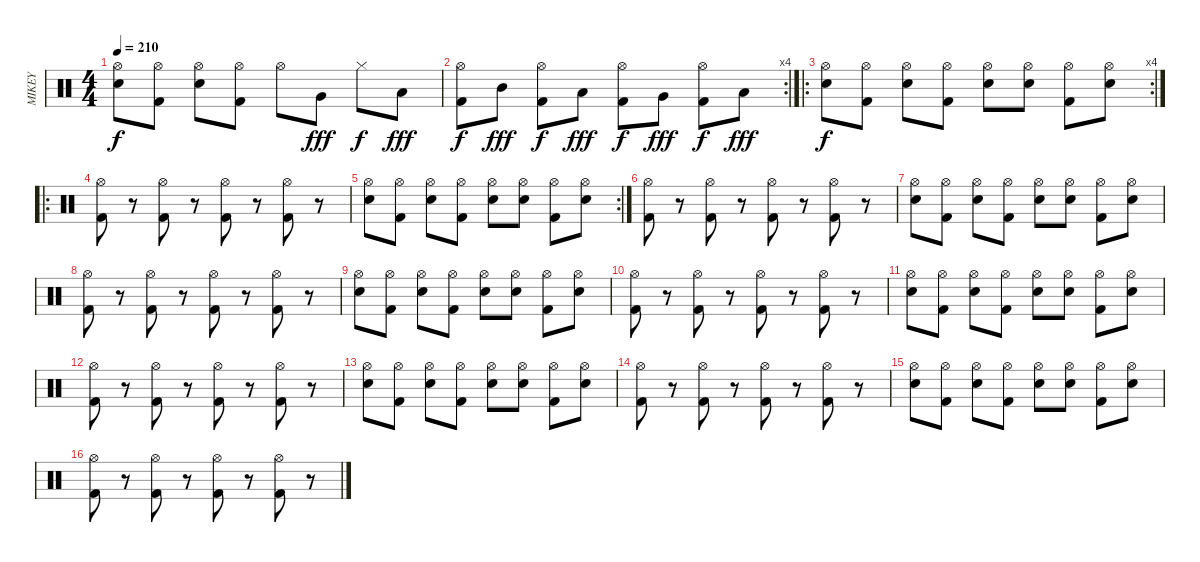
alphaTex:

\track ("MIKEY" "MIKEY") {instrument percussion}
\staff {score}
\articulation defaults
\ts (4 4)
\tempo 210
\clef neutral
\ks c
("Snare (hit) 2" "Hi-Hat (open)").8{dy f} ("Kick (hit) 2" "Hi-Hat (open)").8 ("Snare (hit) 2" "Hi-Hat (open)").8 ("Kick (hit) 2" "Hi-Hat (open)").8 "Hi-Hat (open)".8 "Very Low Tom (hit)".8{dy fff} "Hi-Hat (closed)".8{dy f} "Low Tom (hit)".8{dy fff} |
\rc 4
("Kick (hit) 2" "Hi-Hat (open)").8{dy f} "Mid Tom (hit)".8{dy fff} ("Kick (hit) 2" "Hi-Hat (open)").8{dy f} "Low Tom (hit)".8{dy fff} ("Kick (hit) 2" "Hi-Hat (open)").8{dy f} "Very Low Tom (hit)".8{dy fff} ("Kick (hit) 2" "Hi-Hat (open)").8{dy f} "Low Floor Tom (hit)".8{dy fff} |
\ro
\rc 4
("Snare (hit) 2" "Hi-Hat (open)").8{dy f} ("Kick (hit) 2" "Hi-Hat (open)").8 ("Snare (hit) 2" "Hi-Hat (open)").8 ("Kick (hit) 2" "Hi-Hat (open)").8 ("Snare (hit) 2" "Hi-Hat (open)").8 ("Snare (hit) 2" "Hi-Hat (open)").8 ("Kick (hit) 2" "Hi-Hat (open)").8 ("Snare (hit) 2" "Hi-Hat (open)").8 |
\ro
("Kick (hit) 2" "Hi-Hat (open)").8 r.8 ("Kick (hit) 2" "Hi-Hat (open)").8 r.8 ("Kick (hit) 2" "Hi-Hat (open)").8 r.8 ("Kick (hit) 2" "Hi-Hat (open)").8 r.8 |
\rc 2
("Snare (hit) 2" "Hi-Hat (open)").8 ("Kick (hit) 2" "Hi-Hat (open)").8 ("Snare (hit) 2" "Hi-Hat (open)").8 ("Kick (hit) 2" "Hi-Hat (open)").8 ("Snare (hit) 2" "Hi-Hat (open)").8 ("Snare (hit) 2" "Hi-Hat (open)").8 ("Kick (hit) 2" "Hi-Hat (open)").8 ("Snare (hit) 2" "Hi-Hat (open)").8 |
("Kick (hit) 2" "Hi-Hat (open)").8 r.8 ("Kick (hit) 2" "Hi-Hat (open)").8 r.8 ("Kick (hit) 2" "Hi-Hat (open)").8 r.8 ("Kick (hit) 2" "Hi-Hat (open)").8 r.8 |
("Snare (hit) 2" "Hi-Hat (open)").8 ("Kick (hit) 2" "Hi-Hat (open)").8 ("Snare (hit) 2" "Hi-Hat (open)").8 ("Kick (hit) 2" "Hi-Hat (open)").8 ("Snare (hit) 2" "Hi-Hat (open)").8 ("Snare (hit) 2" "Hi-Hat (open)").8 ("Kick (hit) 2" "Hi-Hat (open)").8 ("Snare (hit) 2" "Hi-Hat (open)").8 |
("Kick (hit) 2" "Hi-Hat (open)").8 r.8 ("Kick (hit) 2" "Hi-Hat (open)").8 r.8 ("Kick (hit) 2" "Hi-Hat (open)").8 r.8 ("Kick (hit) 2" "Hi-Hat (open)").8 r.8 |
("Snare (hit) 2" "Hi-Hat (open)").8 ("Kick (hit) 2" "Hi-Hat (open)").8 ("Snare (hit) 2" "Hi-Hat (open)").8 ("Kick (hit) 2" "Hi-Hat (open)").8 ("Snare (hit) 2" "Hi-Hat (open)").8 ("Snare (hit) 2" "Hi-Hat (open)").8 ("Kick (hit) 2" "Hi-Hat (open)").8 ("Snare (hit) 2" "Hi-Hat (open)").8 |
("Kick (hit) 2" "Hi-Hat (open)").8 r.8 ("Kick (hit) 2" "Hi-Hat (open)").8 r.8 ("Kick (hit) 2" "Hi-Hat (open)").8 r.8 ("Kick (hit) 2" "Hi-Hat (open)").8 r.8 |
("Snare (hit) 2" "Hi-Hat (open)").8 ("Kick (hit) 2" "Hi-Hat (open)").8 ("Snare (hit) 2" "Hi-Hat (open)").8 ("Kick (hit) 2" "Hi-Hat (open)").8 ("Snare (hit) 2" "Hi-Hat (open)").8 ("Snare (hit) 2" "Hi-Hat (open)").8 ("Kick (hit) 2" "Hi-Hat (open)").8 ("Snare (hit) 2" "Hi-Hat (open)").8 |
("Kick (hit) 2" "Hi-Hat (open)").8 r.8 ("Kick (hit) 2" "Hi-Hat (open)").8 r.8 ("Kick (hit) 2" "Hi-Hat (open)").8 r.8 ("Kick (hit) 2" "Hi-Hat (open)").8 r.8 |
("Snare (hit) 2" "Hi-Hat (open)").8 ("Kick (hit) 2" "Hi-Hat (open)").8 ("Snare (hit) 2" "Hi-Hat (open)").8 ("Kick (hit) 2" "Hi-Hat (open)").8 ("Snare (hit) 2" "Hi-Hat (open)").8 ("Snare (hit) 2" "Hi-Hat (open)").8 ("Kick (hit) 2" "Hi-Hat (open)").8 ("Snare (hit) 2" "Hi-Hat (open)").8 |
("Kick (hit) 2" "Hi-Hat (open)").8 r.8 ("Kick (hit) 2" "Hi-Hat (open)").8 r.8 ("Kick (hit) 2" "Hi-Hat (open)").8 r.8 ("Kick (hit) 2" "Hi-Hat (open)").8 r.8 |
("Snare (hit) 2" "Hi-Hat (open)").8 ("Kick (hit) 2" "Hi-Hat (open)").8 ("Snare (hit) 2" "Hi-Hat (open)").8 ("Kick (hit) 2" "Hi-Hat (open)").8 ("Snare (hit) 2" "Hi-Hat (open)").8 ("Snare (hit) 2" "Hi-Hat (open)").8 ("Kick (hit) 2" "Hi-Hat (open)").8 ("Snare (hit) 2" "Hi-Hat (open)").8 |
("Kick (hit) 2" "Hi-Hat (open)").8 r.8 ("Kick (hit) 2" "Hi-Hat (open)").8 r.8 ("Kick (hit) 2" "Hi-Hat (open)").8 r.8 ("Kick (hit) 2" "Hi-Hat (open)").8 r.8
